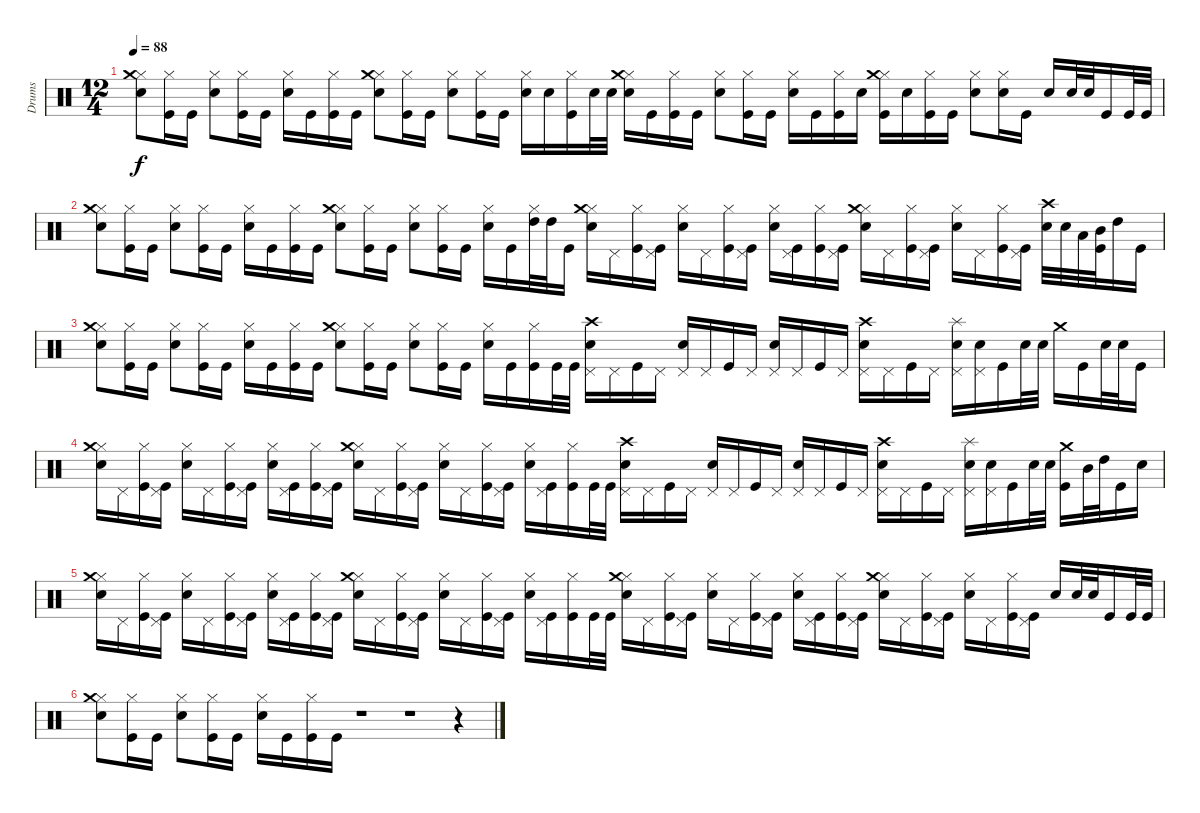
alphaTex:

\track ("Drums" "Drums") {instrument percussion}
\staff {score}
\articulation defaults
\ts (12 4)
\tempo 88
\clef neutral
\ks c
("Electric Snare (hit)" "Hi-Hat (closed)" "Crash medium (hit)").8{dy f} ("Kick (hit)" "Hi-Hat (closed)").16 "Kick (hit)".16 ("Electric Snare (hit)" "Hi-Hat (closed)").8 ("Kick (hit)" "Hi-Hat (closed)").16 "Kick (hit)".16 ("Electric Snare (hit)" "Hi-Hat (closed)").16 "Kick (hit)".16 ("Kick (hit)" "Hi-Hat (closed)").16 "Kick (hit)".16 ("Electric Snare (hit)" "Hi-Hat (closed)" "Crash medium (hit)").8 ("Kick (hit)" "Hi-Hat (closed)").16 "Kick (hit)".16 ("Electric Snare (hit)" "Hi-Hat (closed)").8 ("Kick (hit)" "Hi-Hat (closed)").16 "Kick (hit)".16 ("Electric Snare (hit)" "Hi-Hat (closed)").16 "Electric Snare (hit)".16 ("Kick (hit)" "Hi-Hat (closed)").16 "Electric Snare (hit)".32 "Electric Snare (hit)".32 ("Electric Snare (hit)" "Hi-Hat (closed)" "Crash medium (hit)").16 "Kick (hit)".16 ("Kick (hit)" "Hi-Hat (closed)").16 "Kick (hit)".16 ("Electric Snare (hit)" "Hi-Hat (closed)").8 ("Kick (hit)" "Hi-Hat (closed)").16 "Kick (hit)".16 ("Electric Snare (hit)" "Hi-Hat (closed)").16 "Kick (hit)".16 ("Kick (hit)" "Hi-Hat (closed)").16 "Electric Snare (hit)".16 ("Kick (hit)" "Hi-Hat (closed)" "Crash medium (hit)").16 "Electric Snare (hit)".16 ("Kick (hit)" "Hi-Hat (closed)").16 "Kick (hit)".16 ("Electric Snare (hit)" "Hi-Hat (closed)").8 ("Electric Snare (hit)" "Hi-Hat (closed)").16 "Kick (hit)".16 "Electric Snare (hit)".16 "Electric Snare (hit)".32 "Electric Snare (hit)".32 "Kick (hit)".16 "Kick (hit)".32 "Kick (hit)".32 |
("Electric Snare (hit)" "Hi-Hat (closed)" "Crash medium (hit)").8 ("Kick (hit)" "Hi-Hat (closed)").16 "Kick (hit)".16 ("Electric Snare (hit)" "Hi-Hat (closed)").8 ("Kick (hit)" "Hi-Hat (closed)").16 "Kick (hit)".16 ("Electric Snare (hit)" "Hi-Hat (closed)").16 "Kick (hit)".16 ("Kick (hit)" "Hi-Hat (closed)").16 "Kick (hit)".16 ("Electric Snare (hit)" "Hi-Hat (closed)" "Crash medium (hit)").8 ("Kick (hit)" "Hi-Hat (closed)").16 "Kick (hit)".16 ("Electric Snare (hit)" "Hi-Hat (closed)").8 ("Kick (hit)" "Hi-Hat (closed)").16 "Kick (hit)".16 ("Electric Snare (hit)" "Hi-Hat (closed)").16 "Kick (hit)".16 ("High Tom (hit)" "Hi-Hat (closed)").32 "High Tom (hit)".32 "Kick (hit)".16 ("Electric Snare (hit)" "Hi-Hat (closed)" "Crash medium (hit)").16 "Pedal Hi-Hat (hit)".16 ("Kick (hit)" "Hi-Hat (closed)").16 ("Kick (hit)" "Pedal Hi-Hat (hit)").16 ("Electric Snare (hit)" "Hi-Hat (closed)").16 "Pedal Hi-Hat (hit)".16 ("Kick (hit)" "Hi-Hat (closed)").16 ("Kick (hit)" "Pedal Hi-Hat (hit)").16 ("Electric Snare (hit)" "Hi-Hat (closed)").16 ("Kick (hit)" "Pedal Hi-Hat (hit)").16 ("Kick (hit)" "Hi-Hat (closed)").16 ("Kick (hit)" "Pedal Hi-Hat (hit)").16 ("Electric Snare (hit)" "Hi-Hat (closed)" "Crash medium (hit)").16 "Pedal Hi-Hat (hit)".16 ("Kick (hit)" "Hi-Hat (closed)").16 ("Kick (hit)" "Pedal Hi-Hat (hit)").16 ("Electric Snare (hit)" "Hi-Hat (closed)").16 "Pedal Hi-Hat (hit)".16 ("Kick (hit)" "Hi-Hat (closed)").16 ("Kick (hit)" "Pedal Hi-Hat (hit)").16 ("Electric Snare (hit)" "Crash high (hit)").32 "Electric Snare (hit)".32 "Low Tom (hit)".32 ("Kick (hit)" "Mid Tom (hit)").32 "High Tom (hit)".16 "Kick (hit)".16 |
("Electric Snare (hit)" "Hi-Hat (closed)" "Crash medium (hit)").8 ("Kick (hit)" "Hi-Hat (closed)").16 "Kick (hit)".16 ("Electric Snare (hit)" "Hi-Hat (closed)").8 ("Kick (hit)" "Hi-Hat (closed)").16 "Kick (hit)".16 ("Electric Snare (hit)" "Hi-Hat (closed)").16 "Kick (hit)".16 ("Kick (hit)" "Hi-Hat (closed)").16 "Kick (hit)".16 ("Electric Snare (hit)" "Hi-Hat (closed)" "Crash medium (hit)").8 ("Kick (hit)" "Hi-Hat (closed)").16 "Kick (hit)".16 ("Electric Snare (hit)" "Hi-Hat (closed)").8 ("Kick (hit)" "Hi-Hat (closed)").16 "Kick (hit)".16 ("Electric Snare (hit)" "Hi-Hat (closed)").16 "Kick (hit)".16 ("Kick (hit)" "Hi-Hat (closed)").16 "Kick (hit)".32 "Kick (hit)".32 ("Electric Snare (hit)" "Pedal Hi-Hat (hit)" "Crash high (hit)").16 "Pedal Hi-Hat (hit)".16 "Kick (hit)".16 "Pedal Hi-Hat (hit)".16 ("Electric Snare (hit)" "Pedal Hi-Hat (hit)").16 "Pedal Hi-Hat (hit)".16 "Kick (hit)".16 "Pedal Hi-Hat (hit)".16 ("Electric Snare (hit)" "Pedal Hi-Hat (hit)").16 "Pedal Hi-Hat (hit)".16 "Kick (hit)".16 "Pedal Hi-Hat (hit)".16 ("Electric Snare (hit)" "Pedal Hi-Hat (hit)" "Crash high (hit)").16 "Pedal Hi-Hat (hit)".16 "Kick (hit)".16 "Pedal Hi-Hat (hit)".16 ("Electric Snare (hit)" "Pedal Hi-Hat (hit)" "Splash (hit)").16 ("Electric Snare (hit)" "Pedal Hi-Hat (hit)").16 "Kick (hit)".16 "Electric Snare (hit)".32 "Electric Snare (hit)".32 "Crash medium (hit)".16 "Kick (hit)".16 "Electric Snare (hit)".32 "Electric Snare (hit)".32 "Kick (hit)".16 |
("Electric Snare (hit)" "Hi-Hat (closed)" "Crash medium (hit)").16{volume 13} "Pedal Hi-Hat (hit)".16 ("Kick (hit)" "Hi-Hat (closed)").16 ("Kick (hit)" "Pedal Hi-Hat (hit)").16 ("Electric Snare (hit)" "Hi-Hat (closed)").16 "Pedal Hi-Hat (hit)".16 ("Kick (hit)" "Hi-Hat (closed)").16 ("Kick (hit)" "Pedal Hi-Hat (hit)").16 ("Electric Snare (hit)" "Hi-Hat (closed)").16 ("Kick (hit)" "Pedal Hi-Hat (hit)").16 ("Kick (hit)" "Hi-Hat (closed)").16 ("Kick (hit)" "Pedal Hi-Hat (hit)").16 ("Electric Snare (hit)" "Hi-Hat (closed)" "Crash medium (hit)").16{volume 12} "Pedal Hi-Hat (hit)".16 ("Kick (hit)" "Hi-Hat (closed)").16 ("Kick (hit)" "Pedal Hi-Hat (hit)").16 ("Electric Snare (hit)" "Hi-Hat (closed)").16 "Pedal Hi-Hat (hit)".16 ("Kick (hit)" "Hi-Hat (closed)").16 ("Kick (hit)" "Pedal Hi-Hat (hit)").16 ("Electric Snare (hit)" "Hi-Hat (closed)").16 ("Kick (hit)" "Pedal Hi-Hat (hit)").16 ("Kick (hit)" "Hi-Hat (closed)").16 "Kick (hit)".32 "Kick (hit)".32 ("Electric Snare (hit)" "Pedal Hi-Hat (hit)" "Crash high (hit)").16{volume 11} "Pedal Hi-Hat (hit)".16 "Kick (hit)".16 "Pedal Hi-Hat (hit)".16 ("Electric Snare (hit)" "Pedal Hi-Hat (hit)").16 "Pedal Hi-Hat (hit)".16 "Kick (hit)".16 "Pedal Hi-Hat (hit)".16 ("Electric Snare (hit)" "Pedal Hi-Hat (hit)").16 "Pedal Hi-Hat (hit)".16 "Kick (hit)".16 "Pedal Hi-Hat (hit)".16 ("Electric Snare (hit)" "Pedal Hi-Hat (hit)" "Crash high (hit)").16{volume 10} "Pedal Hi-Hat (hit)".16 "Kick (hit)".16 "Pedal Hi-Hat (hit)".16 ("Electric Snare (hit)" "Pedal Hi-Hat (hit)" "Splash (hit)").16 ("Electric Snare (hit)" "Pedal Hi-Hat (hit)").16 "Kick (hit)".16 "Electric Snare (hit)".32 "Electric Snare (hit)".32 ("Kick (hit)" "Crash medium (hit)").16{volume 9} "Mid Tom (hit)".32 "High Tom (hit)".32 "Kick (hit)".16 "Electric Snare (hit)".16 |
("Electric Snare (hit)" "Hi-Hat (closed)" "Crash medium (hit)").16{volume 8} "Pedal Hi-Hat (hit)".16 ("Kick (hit)" "Hi-Hat (closed)").16 ("Kick (hit)" "Pedal Hi-Hat (hit)").16 ("Electric Snare (hit)" "Hi-Hat (closed)").16 "Pedal Hi-Hat (hit)".16 ("Kick (hit)" "Hi-Hat (closed)").16 ("Kick (hit)" "Pedal Hi-Hat (hit)").16 ("Electric Snare (hit)" "Hi-Hat (closed)").16 ("Kick (hit)" "Pedal Hi-Hat (hit)").16 ("Kick (hit)" "Hi-Hat (closed)").16 ("Kick (hit)" "Pedal Hi-Hat (hit)").16 ("Electric Snare (hit)" "Hi-Hat (closed)" "Crash medium (hit)").16{volume 6} "Pedal Hi-Hat (hit)".16 ("Kick (hit)" "Hi-Hat (closed)").16 ("Kick (hit)" "Pedal Hi-Hat (hit)").16 ("Electric Snare (hit)" "Hi-Hat (closed)").16 "Pedal Hi-Hat (hit)".16 ("Kick (hit)" "Hi-Hat (closed)").16 ("Kick (hit)" "Pedal Hi-Hat (hit)").16 ("Electric Snare (hit)" "Hi-Hat (closed)").16 ("Kick (hit)" "Pedal Hi-Hat (hit)").16 ("Kick (hit)" "Hi-Hat (closed)").16 "Kick (hit)".32 "Kick (hit)".32 ("Electric Snare (hit)" "Hi-Hat (closed)" "Crash medium (hit)").16{volume 4} "Pedal Hi-Hat (hit)".16 ("Kick (hit)" "Hi-Hat (closed)").16 ("Kick (hit)" "Pedal Hi-Hat (hit)").16 ("Electric Snare (hit)" "Hi-Hat (closed)").16 "Pedal Hi-Hat (hit)".16 ("Kick (hit)" "Hi-Hat (closed)").16 ("Kick (hit)" "Pedal Hi-Hat (hit)").16 ("Electric Snare (hit)" "Hi-Hat (closed)").16 ("Kick (hit)" "Pedal Hi-Hat (hit)").16 ("Kick (hit)" "Hi-Hat (closed)").16{volume 2} ("Kick (hit)" "Pedal Hi-Hat (hit)").16 ("Electric Snare (hit)" "Hi-Hat (closed)" "Crash medium (hit)").16 "Pedal Hi-Hat (hit)".16 ("Kick (hit)" "Hi-Hat (closed)").16 ("Kick (hit)" "Pedal Hi-Hat (hit)").16 ("Electric Snare (hit)" "Hi-Hat (closed)").16{volume 1} "Pedal Hi-Hat (hit)".16 ("Kick (hit)" "Hi-Hat (closed)").16 ("Kick (hit)" "Pedal Hi-Hat (hit)").16 "Electric Snare (hit)".16 "Electric Snare (hit)".32 "Electric Snare (hit)".32 "Kick (hit)".16 "Kick (hit)".32 "Kick (hit)".32 |
("Electric Snare (hit)" "Hi-Hat (closed)" "Crash medium (hit)").8{volume 0} ("Kick (hit)" "Hi-Hat (closed)").16 "Kick (hit)".16 ("Electric Snare (hit)" "Hi-Hat (closed)").8 ("Kick (hit)" "Hi-Hat (closed)").16 "Kick (hit)".16 ("Electric Snare (hit)" "Hi-Hat (closed)").16 "Kick (hit)".16 ("Kick (hit)" "Hi-Hat (closed)").16 "Kick (hit)".16 r.1 r.1 r.4
